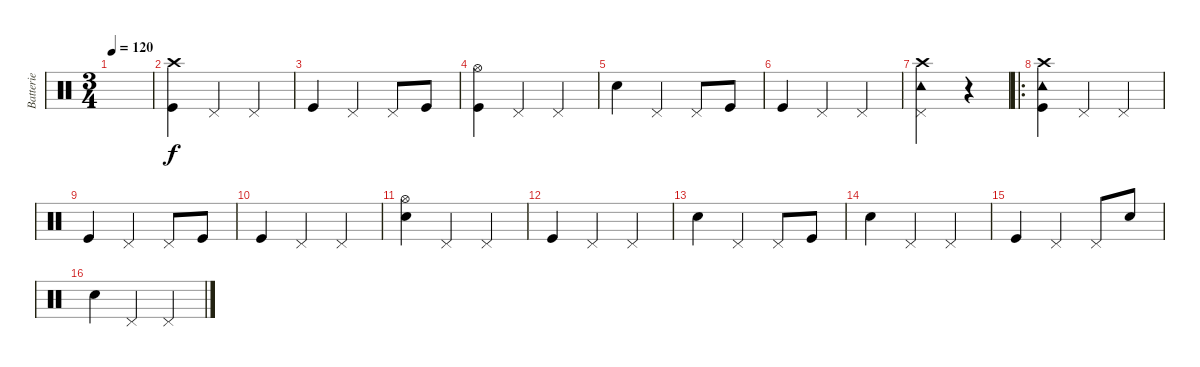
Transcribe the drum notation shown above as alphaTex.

\track ("Batterie" "Batterie") {instrument percussion}
\staff {score}
\articulation defaults
\ts (3 4)
\tempo 120
\clef neutral
\ks c
|
("Crash high (hit)" "Kick (hit)").4 "Pedal Hi-Hat (hit)".4 "Pedal Hi-Hat (hit)".4 |
"Kick (hit)".4 "Pedal Hi-Hat (hit)".4 "Pedal Hi-Hat (hit)".8 "Kick (hit)".8 |
("Hi-Hat (open)" "Kick (hit)").4 "Pedal Hi-Hat (hit)".4 "Pedal Hi-Hat (hit)".4 |
"Snare (hit) 2".4 "Pedal Hi-Hat (hit)".4 "Pedal Hi-Hat (hit)".8 "Kick (hit)".8 |
"Kick (hit)".4 "Pedal Hi-Hat (hit)".4 "Pedal Hi-Hat (hit)".4 |
("Crash high (hit)" "Pedal Hi-Hat (hit)" "Tambourine (hit)").2 r.4 |
\ro
("Crash high (hit)" "Tambourine (hit)" "Kick (hit)").4 "Pedal Hi-Hat (hit)".4 "Pedal Hi-Hat (hit)".4 |
"Kick (hit)".4 "Pedal Hi-Hat (hit)".4 "Pedal Hi-Hat (hit)".8 "Kick (hit)".8 |
"Kick (hit)".4 "Pedal Hi-Hat (hit)".4 "Pedal Hi-Hat (hit)".4 |
("Hi-Hat (open)" "Snare (hit) 2").4 "Pedal Hi-Hat (hit)".4 "Pedal Hi-Hat (hit)".4 |
"Kick (hit)".4 "Pedal Hi-Hat (hit)".4 "Pedal Hi-Hat (hit)".4 |
"Snare (hit) 2".4 "Pedal Hi-Hat (hit)".4 "Pedal Hi-Hat (hit)".8 "Kick (hit)".8 |
"Snare (hit) 2".4 "Pedal Hi-Hat (hit)".4 "Pedal Hi-Hat (hit)".4 |
"Kick (hit)".4 "Pedal Hi-Hat (hit)".4 "Pedal Hi-Hat (hit)".8 "Snare (hit) 2".8 |
"Snare (hit) 2".4 "Pedal Hi-Hat (hit)".4 "Pedal Hi-Hat (hit)".4
